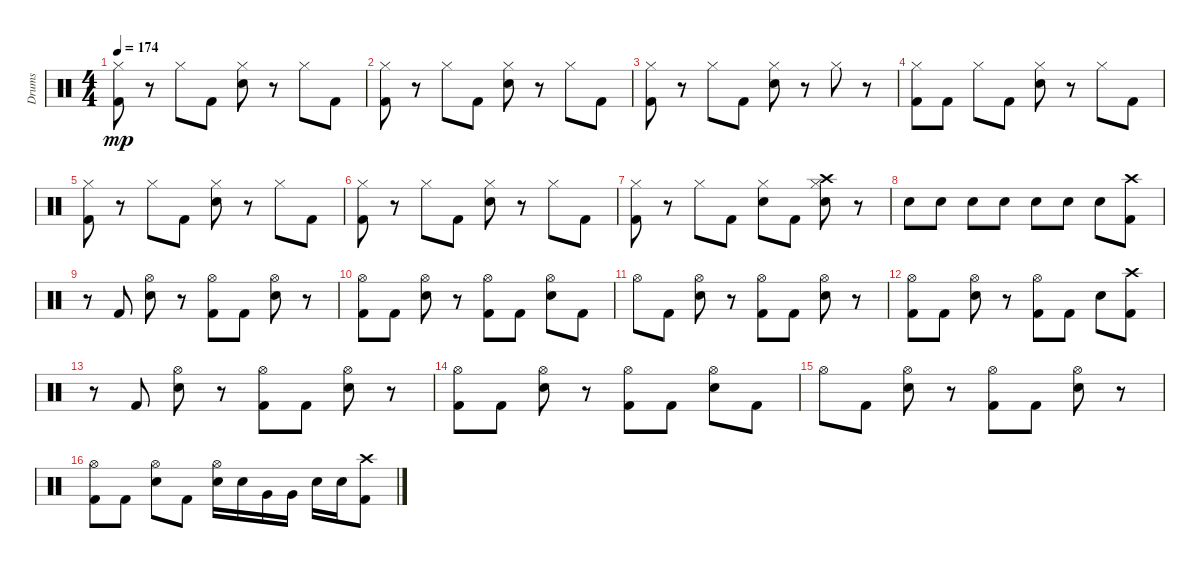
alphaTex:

\track ("Drums" "Drums") {instrument percussion}
\staff {score}
\articulation defaults
\ts (4 4)
\tempo 174
\clef neutral
\ks c
("Kick (hit) 2" "Hi-Hat (closed)").8{dy mp} r.8 "Hi-Hat (closed)".8 "Kick (hit) 2".8 ("Hi-Hat (closed)" "Snare (hit) 2").8 r.8 "Hi-Hat (closed)".8 "Kick (hit) 2".8 |
("Hi-Hat (closed)" "Kick (hit) 2").8 r.8 "Hi-Hat (closed)".8 "Kick (hit) 2".8 ("Hi-Hat (closed)" "Snare (hit) 2").8 r.8 "Hi-Hat (closed)".8 "Kick (hit) 2".8 |
("Hi-Hat (closed)" "Kick (hit) 2").8 r.8 "Hi-Hat (closed)".8 "Kick (hit) 2".8 ("Hi-Hat (closed)" "Snare (hit) 2").8 r.8 "Hi-Hat (closed)".8 r.8 |
("Kick (hit) 2" "Hi-Hat (closed)").8 "Kick (hit) 2".8 "Hi-Hat (closed)".8 "Kick (hit) 2".8 ("Snare (hit) 2" "Hi-Hat (closed)").8 r.8 "Hi-Hat (closed)".8 "Kick (hit) 2".8 |
("Kick (hit) 2" "Hi-Hat (closed)").8 r.8 "Hi-Hat (closed)".8 "Kick (hit) 2".8 ("Snare (hit) 2" "Hi-Hat (closed)").8 r.8 "Hi-Hat (closed)".8 "Kick (hit) 2".8 |
("Kick (hit) 2" "Hi-Hat (closed)").8 r.8 "Hi-Hat (closed)".8 "Kick (hit) 2".8 ("Snare (hit) 2" "Hi-Hat (closed)").8 r.8 "Hi-Hat (closed)".8 "Kick (hit) 2".8 |
("Kick (hit) 2" "Hi-Hat (closed)").8 r.8 "Hi-Hat (closed)".8 "Kick (hit) 2".8 ("Snare (hit) 2" "Hi-Hat (closed)").8 "Kick (hit) 2".8 ("Snare (hit) 2" "Crash high (hit)" "Hi-Hat (closed)").8 r.8 |
"Snare (hit) 2".8 "Snare (hit) 2".8 "Snare (hit) 2".8 "Snare (hit) 2".8 "Snare (hit) 2".8 "Snare (hit) 2".8 "Snare (hit) 2".8 ("Kick (hit) 2" "Crash high (hit)").8 |
r.8 "Kick (hit) 2".8 ("Hi-Hat (open)" "Snare (hit) 2").8 r.8 ("Hi-Hat (open)" "Kick (hit) 2").8 "Kick (hit) 2".8 ("Snare (hit) 2" "Hi-Hat (open)").8 r.8 |
("Hi-Hat (open)" "Kick (hit) 2").8 "Kick (hit) 2".8 ("Snare (hit) 2" "Hi-Hat (open)").8 r.8 ("Kick (hit) 2" "Hi-Hat (open)").8 "Kick (hit) 2".8 ("Snare (hit) 2" "Hi-Hat (open)").8 "Kick (hit) 2".8 |
"Hi-Hat (open)".8 "Kick (hit) 2".8 ("Hi-Hat (open)" "Snare (hit) 2").8 r.8 ("Hi-Hat (open)" "Kick (hit) 2").8 "Kick (hit) 2".8 ("Snare (hit) 2" "Hi-Hat (open)").8 r.8 |
("Hi-Hat (open)" "Kick (hit) 2").8 "Kick (hit) 2".8 ("Snare (hit) 2" "Hi-Hat (open)").8 r.8 ("Kick (hit) 2" "Hi-Hat (open)").8 "Kick (hit) 2".8 "Snare (hit) 2".8 ("Kick (hit) 2" "Crash high (hit)").8 |
r.8 "Kick (hit) 2".8 ("Snare (hit) 2" "Hi-Hat (open)").8 r.8 ("Kick (hit) 2" "Hi-Hat (open)").8 "Kick (hit) 2".8 ("Snare (hit) 2" "Hi-Hat (open)").8 r.8 |
("Hi-Hat (open)" "Kick (hit) 2").8 "Kick (hit) 2".8 ("Snare (hit) 2" "Hi-Hat (open)").8 r.8 ("Hi-Hat (open)" "Kick (hit) 2").8 "Kick (hit) 2".8 ("Hi-Hat (open)" "Snare (hit) 2").8 "Kick (hit) 2".8 |
"Hi-Hat (open)".8 "Kick (hit) 2".8 ("Snare (hit) 2" "Hi-Hat (open)").8 r.8 ("Hi-Hat (open)" "Kick (hit) 2").8 "Kick (hit) 2".8 ("Hi-Hat (open)" "Snare (hit) 2").8 r.8 |
("Hi-Hat (open)" "Kick (hit) 2").8 "Kick (hit) 2".8 ("Snare (hit) 2" "Hi-Hat (open)").8 "Kick (hit) 2".8 ("Snare (hit) 2" "Hi-Hat (open)").16 "Snare (hit) 2".16 "Very Low Tom (hit)".16 "Very Low Tom (hit)".16 "Snare (hit) 2".16 "Snare (hit) 2".16 ("Kick (hit) 2" "Crash high (hit)").8
